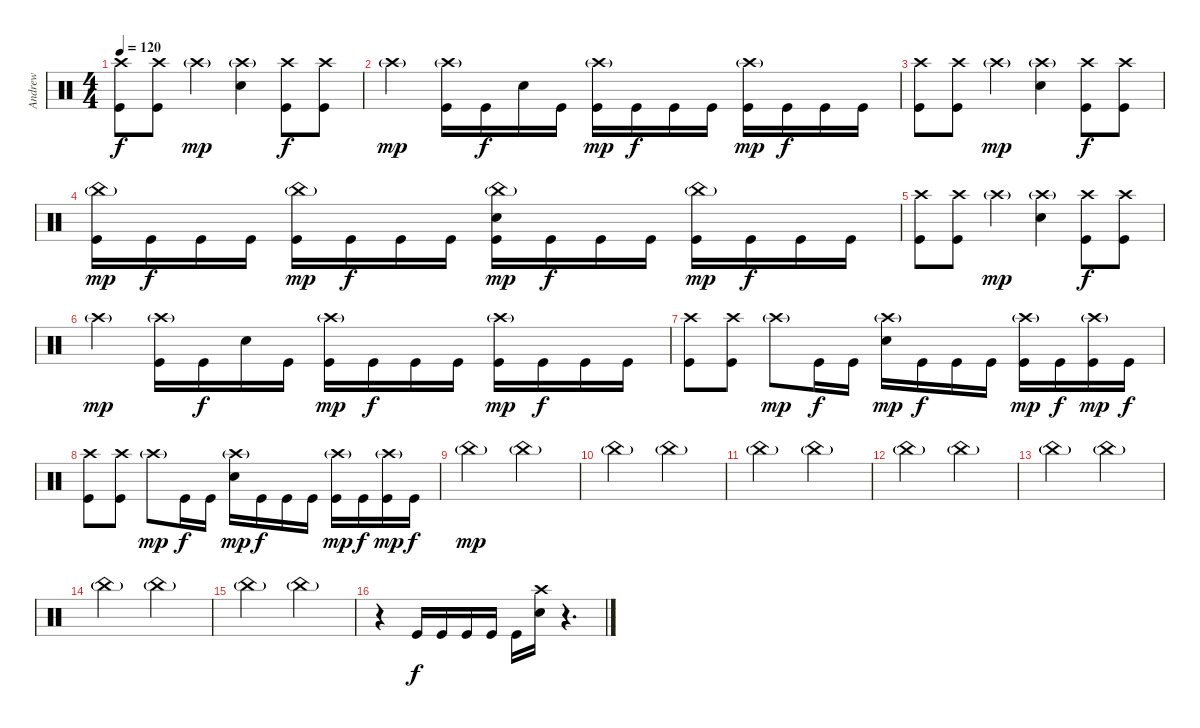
\track ("Andrew" "Andrew") {instrument percussion}
\staff {score}
\articulation defaults
\ts (4 4)
\tempo 120
\clef neutral
\ks c
("Crash high (hit)" "Kick (hit)").8{dy f} ("Crash high (hit)" "Kick (hit)").8 "Crash high (hit)"{g}.4{dy mp} ("Crash high (hit)"{g} "Snare (hit) 2").4 ("Crash high (hit)" "Kick (hit)").8{dy f} ("Crash high (hit)" "Kick (hit)").8 |
"Crash high (hit)"{g}.4{dy mp} ("Crash high (hit)"{g} "Kick (hit)").16 "Kick (hit)".16{dy f} "Snare (hit) 2".16 "Kick (hit)".16 ("Crash high (hit)"{g} "Kick (hit)").16{dy mp} "Kick (hit)".16{dy f} "Kick (hit)".16 "Kick (hit)".16 ("Crash high (hit)"{g} "Kick (hit)").16{dy mp} "Kick (hit)".16{dy f} "Kick (hit)".16 "Kick (hit)".16 |
("Crash high (hit)" "Kick (hit)").8 ("Crash high (hit)" "Kick (hit)").8 "Crash high (hit)"{g}.4{dy mp} ("Crash high (hit)"{g} "Snare (hit) 2").4 ("Crash high (hit)" "Kick (hit)").8{dy f} ("Crash high (hit)" "Kick (hit)").8 |
("China (hit)"{g} "Kick (hit)").16{dy mp} "Kick (hit)".16{dy f} "Kick (hit)".16 "Kick (hit)".16 ("China (hit)"{g} "Kick (hit)").16{dy mp} "Kick (hit)".16{dy f} "Kick (hit)".16 "Kick (hit)".16 ("China (hit)"{g} "Snare (hit) 2" "Kick (hit)").16{dy mp} "Kick (hit)".16{dy f} "Kick (hit)".16 "Kick (hit)".16 ("China (hit)"{g} "Kick (hit)").16{dy mp} "Kick (hit)".16{dy f} "Kick (hit)".16 "Kick (hit)".16 |
("Crash high (hit)" "Kick (hit)").8 ("Crash high (hit)" "Kick (hit)").8 "Crash high (hit)"{g}.4{dy mp} ("Crash high (hit)"{g} "Snare (hit) 2").4 ("Crash high (hit)" "Kick (hit)").8{dy f} ("Crash high (hit)" "Kick (hit)").8 |
"Crash high (hit)"{g}.4{dy mp} ("Crash high (hit)"{g} "Kick (hit)").16 "Kick (hit)".16{dy f} "Snare (hit) 2".16 "Kick (hit)".16 ("Crash high (hit)"{g} "Kick (hit)").16{dy mp} "Kick (hit)".16{dy f} "Kick (hit)".16 "Kick (hit)".16 ("Crash high (hit)"{g} "Kick (hit)").16{dy mp} "Kick (hit)".16{dy f} "Kick (hit)".16 "Kick (hit)".16 |
("Crash high (hit)" "Kick (hit)").8 ("Crash high (hit)" "Kick (hit)").8 "Crash high (hit)"{g}.8{dy mp} "Kick (hit)".16{dy f} "Kick (hit)".16 ("Crash high (hit)"{g} "Snare (hit) 2").16{dy mp} "Kick (hit)".16{dy f} "Kick (hit)".16 "Kick (hit)".16 ("Crash high (hit)"{g} "Kick (hit)").16{dy mp} "Kick (hit)".16{dy f} ("Crash high (hit)"{g} "Kick (hit)").16{dy mp} "Kick (hit)".16{dy f} |
("Crash high (hit)" "Kick (hit)").8 ("Crash high (hit)" "Kick (hit)").8 "Crash high (hit)"{g}.8{dy mp} "Kick (hit)".16{dy f} "Kick (hit)".16 ("Crash high (hit)"{g} "Snare (hit) 2").16{dy mp} "Kick (hit)".16{dy f} "Kick (hit)".16 "Kick (hit)".16 ("Crash high (hit)"{g} "Kick (hit)").16{dy mp} "Kick (hit)".16{dy f} ("Crash high (hit)"{g} "Kick (hit)").16{dy mp} "Kick (hit)".16{dy f} |
"China (hit)"{g}.2{dy mp} "China (hit)"{g}.2 |
"China (hit)"{g}.2 "China (hit)"{g}.2 |
"China (hit)"{g}.2 "China (hit)"{g}.2 |
"China (hit)"{g}.2 "China (hit)"{g}.2 |
"China (hit)"{g}.2 "China (hit)"{g}.2 |
"China (hit)"{g}.2 "China (hit)"{g}.2 |
"China (hit)"{g}.2 "China (hit)"{g}.2 |
r.4 "Kick (hit)".16{dy f} "Kick (hit)".16 "Kick (hit)".16 "Kick (hit)".16 "Kick (hit)".16 ("Crash high (hit)" "Snare (hit) 2").16 r.4{d}
